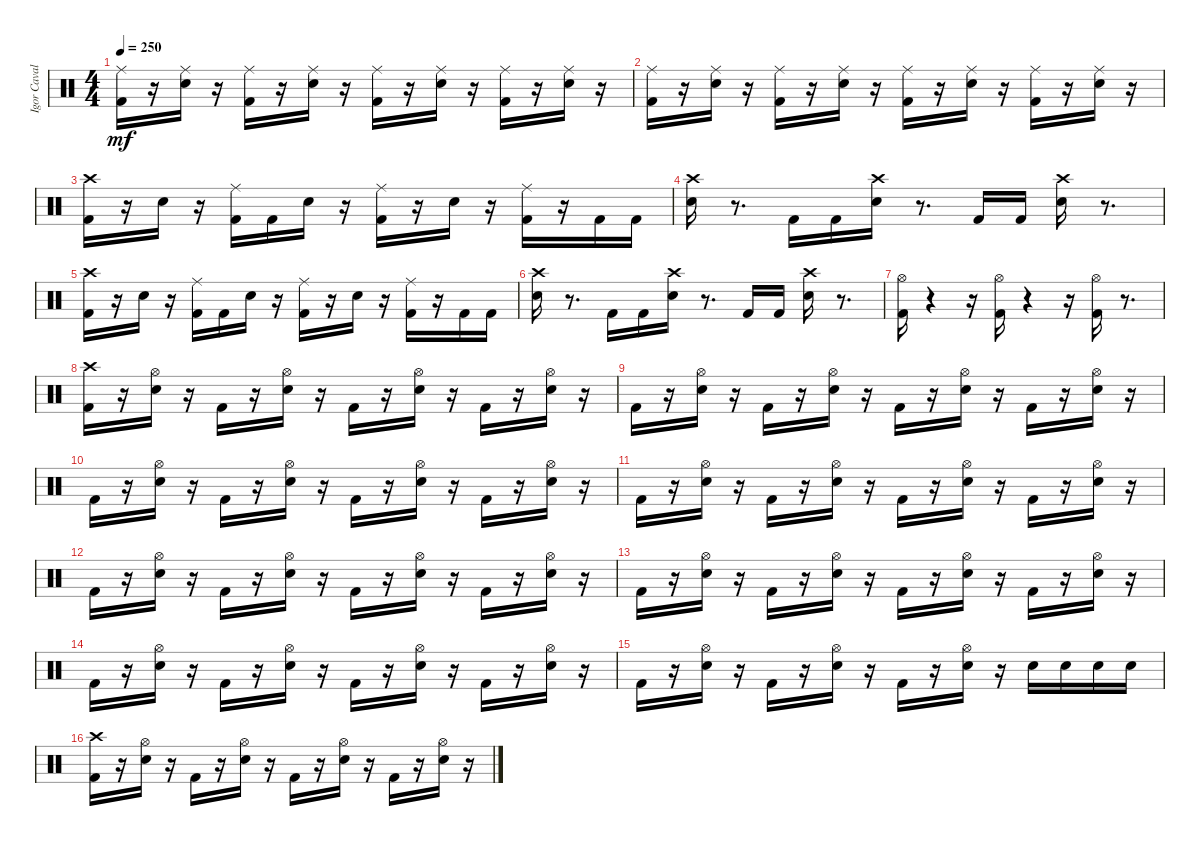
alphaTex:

\track ("Igor Cavalera" "Igor Caval") {instrument percussion}
\staff {score}
\articulation defaults
\ts (4 4)
\tempo 250
\clef neutral
\ks c
("Kick (hit) 2" "Ride (middle)").16{dy mf} r.16 ("Snare (hit) 2" "Ride (middle)").16 r.16 ("Kick (hit) 2" "Ride (middle)").16 r.16 ("Snare (hit) 2" "Ride (middle)").16 r.16 ("Kick (hit) 2" "Ride (middle)").16 r.16 ("Snare (hit) 2" "Ride (middle)").16 r.16 ("Kick (hit) 2" "Ride (middle)").16 r.16 ("Snare (hit) 2" "Ride (middle)").16 r.16 |
("Kick (hit) 2" "Ride (middle)").16 r.16 ("Snare (hit) 2" "Ride (middle)").16 r.16 ("Kick (hit) 2" "Ride (middle)").16 r.16 ("Snare (hit) 2" "Ride (middle)").16 r.16 ("Kick (hit) 2" "Ride (middle)").16 r.16 ("Snare (hit) 2" "Ride (middle)").16 r.16 ("Kick (hit) 2" "Ride (middle)").16 r.16 ("Snare (hit) 2" "Ride (middle)").16 r.16 |
("Crash high (hit)" "Kick (hit) 2").16 r.16 "Snare (hit) 2".16 r.16 ("Kick (hit) 2" "Ride (middle)").16 "Kick (hit) 2".16 "Snare (hit) 2".16 r.16 ("Kick (hit) 2" "Ride (middle)").16 r.16 "Snare (hit) 2".16 r.16 ("Kick (hit) 2" "Ride (middle)").16 r.16 "Kick (hit) 2".16 "Kick (hit) 2".16 |
("Crash high (hit)" "Snare (hit) 2").16 r.8{d} "Kick (hit) 2".16 "Kick (hit) 2".16 ("Snare (hit) 2" "Crash high (hit)").16 r.8{d} "Kick (hit) 2".16 "Kick (hit) 2".16 ("Snare (hit) 2" "Crash high (hit)").16 r.8{d} |
("Crash high (hit)" "Kick (hit) 2").16 r.16 "Snare (hit) 2".16 r.16 ("Kick (hit) 2" "Ride (middle)").16 "Kick (hit) 2".16 "Snare (hit) 2".16 r.16 ("Kick (hit) 2" "Ride (middle)").16 r.16 "Snare (hit) 2".16 r.16 ("Kick (hit) 2" "Ride (middle)").16 r.16 "Kick (hit) 2".16 "Kick (hit) 2".16 |
("Crash high (hit)" "Snare (hit) 2").16 r.8{d} "Kick (hit) 2".16 "Kick (hit) 2".16 ("Snare (hit) 2" "Crash high (hit)").16 r.8{d} "Kick (hit) 2".16 "Kick (hit) 2".16 ("Snare (hit) 2" "Crash high (hit)").16 r.8{d} |
("Kick (hit) 2" "Hi-Hat (open)").16 r.4 r.16 ("Hi-Hat (open)" "Kick (hit) 2").16 r.4 r.16 ("Hi-Hat (open)" "Kick (hit) 2").16 r.8{d} |
("Crash high (hit)" "Kick (hit) 2").16 r.16 ("Snare (hit) 2" "Hi-Hat (open)").16 r.16 "Kick (hit) 2".16 r.16 ("Snare (hit) 2" "Hi-Hat (open)").16 r.16 "Kick (hit) 2".16 r.16 ("Snare (hit) 2" "Hi-Hat (open)").16 r.16 "Kick (hit) 2".16 r.16 ("Snare (hit) 2" "Hi-Hat (open)").16 r.16 |
"Kick (hit) 2".16 r.16 ("Snare (hit) 2" "Hi-Hat (open)").16 r.16 "Kick (hit) 2".16 r.16 ("Snare (hit) 2" "Hi-Hat (open)").16 r.16 "Kick (hit) 2".16 r.16 ("Snare (hit) 2" "Hi-Hat (open)").16 r.16 "Kick (hit) 2".16 r.16 ("Snare (hit) 2" "Hi-Hat (open)").16 r.16 |
"Kick (hit) 2".16 r.16 ("Snare (hit) 2" "Hi-Hat (open)").16 r.16 "Kick (hit) 2".16 r.16 ("Snare (hit) 2" "Hi-Hat (open)").16 r.16 "Kick (hit) 2".16 r.16 ("Snare (hit) 2" "Hi-Hat (open)").16 r.16 "Kick (hit) 2".16 r.16 ("Snare (hit) 2" "Hi-Hat (open)").16 r.16 |
"Kick (hit) 2".16 r.16 ("Snare (hit) 2" "Hi-Hat (open)").16 r.16 "Kick (hit) 2".16 r.16 ("Snare (hit) 2" "Hi-Hat (open)").16 r.16 "Kick (hit) 2".16 r.16 ("Snare (hit) 2" "Hi-Hat (open)").16 r.16 "Kick (hit) 2".16 r.16 ("Snare (hit) 2" "Hi-Hat (open)").16 r.16 |
"Kick (hit) 2".16 r.16 ("Snare (hit) 2" "Hi-Hat (open)").16 r.16 "Kick (hit) 2".16 r.16 ("Snare (hit) 2" "Hi-Hat (open)").16 r.16 "Kick (hit) 2".16 r.16 ("Snare (hit) 2" "Hi-Hat (open)").16 r.16 "Kick (hit) 2".16 r.16 ("Snare (hit) 2" "Hi-Hat (open)").16 r.16 |
"Kick (hit) 2".16 r.16 ("Snare (hit) 2" "Hi-Hat (open)").16 r.16 "Kick (hit) 2".16 r.16 ("Snare (hit) 2" "Hi-Hat (open)").16 r.16 "Kick (hit) 2".16 r.16 ("Snare (hit) 2" "Hi-Hat (open)").16 r.16 "Kick (hit) 2".16 r.16 ("Snare (hit) 2" "Hi-Hat (open)").16 r.16 |
"Kick (hit) 2".16 r.16 ("Snare (hit) 2" "Hi-Hat (open)").16 r.16 "Kick (hit) 2".16 r.16 ("Snare (hit) 2" "Hi-Hat (open)").16 r.16 "Kick (hit) 2".16 r.16 ("Snare (hit) 2" "Hi-Hat (open)").16 r.16 "Kick (hit) 2".16 r.16 ("Snare (hit) 2" "Hi-Hat (open)").16 r.16 |
"Kick (hit) 2".16 r.16 ("Snare (hit) 2" "Hi-Hat (open)").16 r.16 "Kick (hit) 2".16 r.16 ("Snare (hit) 2" "Hi-Hat (open)").16 r.16 "Kick (hit) 2".16 r.16 ("Snare (hit) 2" "Hi-Hat (open)").16 r.16 "Snare (hit) 2".16 "Snare (hit) 2".16 "Snare (hit) 2".16 "Snare (hit) 2".16 |
("Crash high (hit)" "Kick (hit) 2").16 r.16 ("Snare (hit) 2" "Hi-Hat (open)").16 r.16 "Kick (hit) 2".16 r.16 ("Snare (hit) 2" "Hi-Hat (open)").16 r.16 "Kick (hit) 2".16 r.16 ("Snare (hit) 2" "Hi-Hat (open)").16 r.16 "Kick (hit) 2".16 r.16 ("Snare (hit) 2" "Hi-Hat (open)").16 r.16
